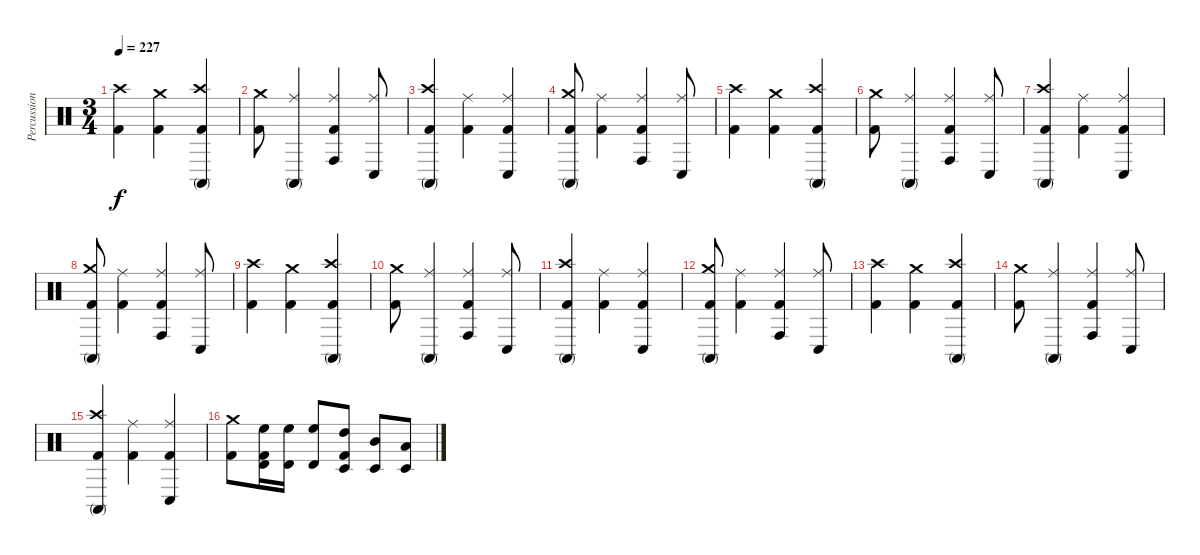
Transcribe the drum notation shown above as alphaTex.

\track ("Percussion" "Percussion") {instrument percussion}
\staff {score}
\articulation defaults
\ts (3 4)
\tempo 227
\clef neutral
\ks c
("Crash high (hit)" "Kick (hit) 2").4{dy f} ("Crash medium (hit)" "Kick (hit) 2").4 ("Crash high (hit)" "Conga high (mute)" "Kick (hit) 2").4 |
("Crash medium (hit)" "Kick (hit) 2").8 ("Ride (middle)" "Conga high (mute)").4 ("Ride (middle)" "Conga high (hit)" "Kick (hit) 2").4 ("Ride (middle)" "Conga low (hit)").8 |
("Crash high (hit)" "Conga high (mute)" "Kick (hit) 2").4 ("Ride (middle)" "Kick (hit) 2").4 ("Ride (middle)" "Conga low (hit)" "Kick (hit) 2").4 |
("Crash medium (hit)" "Conga high (mute)" "Kick (hit) 2").8 ("Ride (middle)" "Kick (hit) 2").4 ("Ride (middle)" "Conga high (hit)" "Kick (hit) 2").4 ("Ride (middle)" "Conga low (hit)").8 |
("Crash high (hit)" "Kick (hit) 2").4 ("Crash medium (hit)" "Kick (hit) 2").4 ("Crash high (hit)" "Conga high (mute)" "Kick (hit) 2").4 |
("Crash medium (hit)" "Kick (hit) 2").8 ("Ride (middle)" "Conga high (mute)").4 ("Ride (middle)" "Conga high (hit)" "Kick (hit) 2").4 ("Ride (middle)" "Conga low (hit)").8 |
("Crash high (hit)" "Conga high (mute)" "Kick (hit) 2").4 ("Ride (middle)" "Kick (hit) 2").4 ("Ride (middle)" "Conga low (hit)" "Kick (hit) 2").4 |
("Crash medium (hit)" "Conga high (mute)" "Kick (hit) 2").8 ("Ride (middle)" "Kick (hit) 2").4 ("Ride (middle)" "Conga high (hit)" "Kick (hit) 2").4 ("Ride (middle)" "Conga low (hit)").8 |
("Crash high (hit)" "Kick (hit) 2").4 ("Crash medium (hit)" "Kick (hit) 2").4 ("Crash high (hit)" "Conga high (mute)" "Kick (hit) 2").4 |
("Crash medium (hit)" "Kick (hit) 2").8 ("Ride (middle)" "Conga high (mute)").4 ("Ride (middle)" "Conga high (hit)" "Kick (hit) 2").4 ("Ride (middle)" "Conga low (hit)").8 |
("Crash high (hit)" "Conga high (mute)" "Kick (hit) 2").4 ("Ride (middle)" "Kick (hit) 2").4 ("Ride (middle)" "Conga low (hit)" "Kick (hit) 2").4 |
("Crash medium (hit)" "Conga high (mute)" "Kick (hit) 2").8 ("Ride (middle)" "Kick (hit) 2").4 ("Ride (middle)" "Conga high (hit)" "Kick (hit) 2").4 ("Ride (middle)" "Conga low (hit)").8 |
("Crash high (hit)" "Kick (hit) 2").4 ("Crash medium (hit)" "Kick (hit) 2").4 ("Crash high (hit)" "Conga high (mute)" "Kick (hit) 2").4 |
("Crash medium (hit)" "Kick (hit) 2").8 ("Ride (middle)" "Conga high (mute)").4 ("Ride (middle)" "Conga high (hit)" "Kick (hit) 2").4 ("Ride (middle)" "Conga low (hit)").8 |
("Crash high (hit)" "Conga high (mute)" "Kick (hit) 2").4 ("Ride (middle)" "Kick (hit) 2").4 ("Ride (middle)" "Conga low (hit)" "Kick (hit) 2").4 |
("Crash medium (hit)" "Kick (hit) 2").8 ("Timbale high (hit)" "High Floor Tom (hit)" "Kick (hit) 2").16 ("Timbale high (hit)" "High Floor Tom (hit)").16 ("Timbale high (hit)" "High Floor Tom (hit)").8 ("Timbale low (hit)" "High Tom (hit)" "Kick (hit) 2").8 ("Timbale low (hit)" "Mid Tom (hit)").8 ("Timbale low (hit)" "Low Tom (hit)").8
